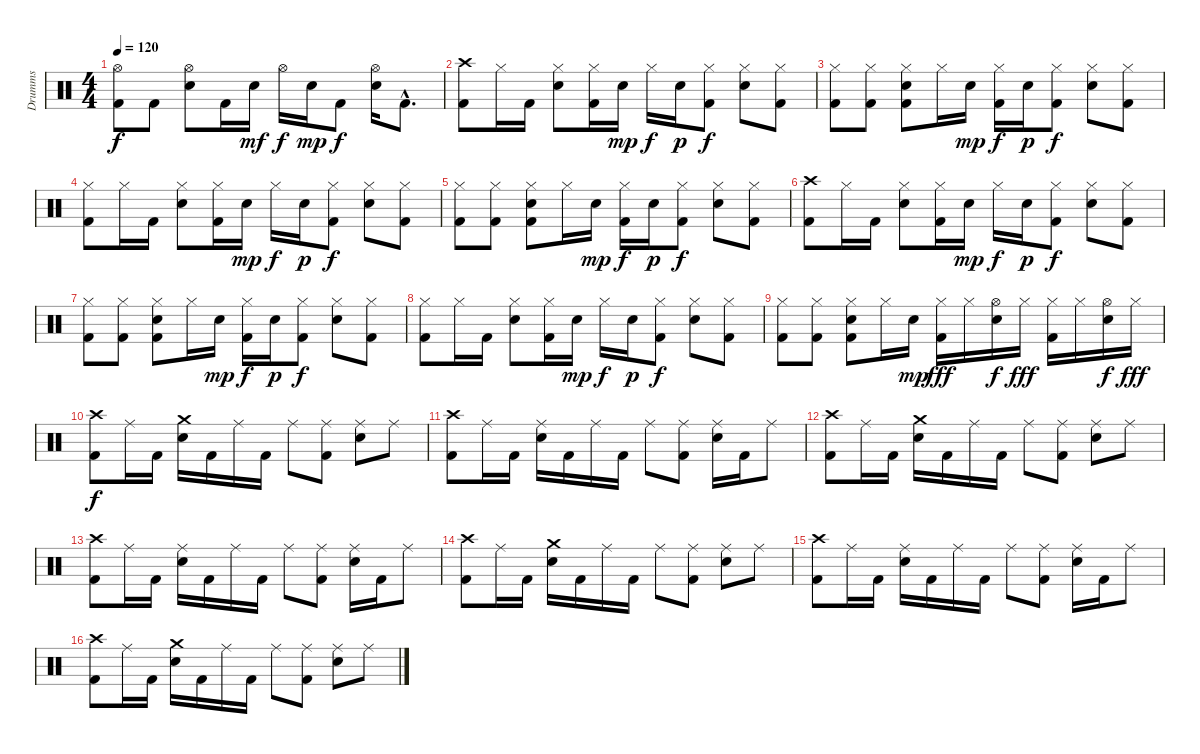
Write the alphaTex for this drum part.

\track ("Drumms" "Drumms") {instrument percussion}
\staff {score}
\articulation defaults
\ts (4 4)
\tempo 120
\clef neutral
\ks c
("Hi-Hat (open)" "Kick (hit) 2").8{dy f} "Kick (hit) 2".8 ("Hi-Hat (open)" "Electric Snare (hit)").8 "Kick (hit) 2".16 "Electric Snare (hit)".16{dy mf} "Hi-Hat (open)".16{dy f} "Electric Snare (hit)".16{dy mp} "Kick (hit) 2".8{dy f} ("Hi-Hat (open)" "Electric Snare (hit)").16 "Kick (hit) 2"{hac}.8{d} |
("Crash high (hit)" "Kick (hit) 2").8 "Hi-Hat (closed)".16 "Kick (hit) 2".16 ("Hi-Hat (closed)" "Electric Snare (hit)").8 ("Hi-Hat (closed)" "Kick (hit) 2").16 "Electric Snare (hit)".16{dy mp} "Hi-Hat (closed)".16{dy f} "Electric Snare (hit)".16{dy p} ("Hi-Hat (closed)" "Kick (hit) 2").8{dy f} ("Hi-Hat (closed)" "Electric Snare (hit)").8 ("Hi-Hat (closed)" "Kick (hit) 2").8 |
("Hi-Hat (closed)" "Kick (hit) 2").8 ("Hi-Hat (closed)" "Kick (hit) 2").8 ("Hi-Hat (closed)" "Electric Snare (hit)" "Kick (hit) 2").8 "Hi-Hat (closed)".16 "Electric Snare (hit)".16{dy mp} ("Hi-Hat (closed)" "Kick (hit) 2").16{dy f} "Electric Snare (hit)".16{dy p} ("Hi-Hat (closed)" "Kick (hit) 2").8{dy f} ("Hi-Hat (closed)" "Electric Snare (hit)").8 ("Hi-Hat (closed)" "Kick (hit) 2").8 |
("Hi-Hat (closed)" "Kick (hit) 2").8 "Hi-Hat (closed)".16 "Kick (hit) 2".16 ("Hi-Hat (closed)" "Electric Snare (hit)").8 ("Hi-Hat (closed)" "Kick (hit) 2").16 "Electric Snare (hit)".16{dy mp} "Hi-Hat (closed)".16{dy f} "Electric Snare (hit)".16{dy p} ("Hi-Hat (closed)" "Kick (hit) 2").8{dy f} ("Hi-Hat (closed)" "Electric Snare (hit)").8 ("Hi-Hat (closed)" "Kick (hit) 2").8 |
("Hi-Hat (closed)" "Kick (hit) 2").8 ("Hi-Hat (closed)" "Kick (hit) 2").8 ("Hi-Hat (closed)" "Electric Snare (hit)" "Kick (hit) 2").8 "Hi-Hat (closed)".16 "Electric Snare (hit)".16{dy mp} ("Hi-Hat (closed)" "Kick (hit) 2").16{dy f} "Electric Snare (hit)".16{dy p} ("Hi-Hat (closed)" "Kick (hit) 2").8{dy f} ("Hi-Hat (closed)" "Electric Snare (hit)").8 ("Hi-Hat (closed)" "Kick (hit) 2").8 |
("Crash high (hit)" "Kick (hit) 2").8 "Hi-Hat (closed)".16 "Kick (hit) 2".16 ("Hi-Hat (closed)" "Electric Snare (hit)").8 ("Hi-Hat (closed)" "Kick (hit) 2").16 "Electric Snare (hit)".16{dy mp} "Hi-Hat (closed)".16{dy f} "Electric Snare (hit)".16{dy p} ("Hi-Hat (closed)" "Kick (hit) 2").8{dy f} ("Hi-Hat (closed)" "Electric Snare (hit)").8 ("Hi-Hat (closed)" "Kick (hit) 2").8 |
("Hi-Hat (closed)" "Kick (hit) 2").8 ("Hi-Hat (closed)" "Kick (hit) 2").8 ("Hi-Hat (closed)" "Electric Snare (hit)" "Kick (hit) 2").8 "Hi-Hat (closed)".16 "Electric Snare (hit)".16{dy mp} ("Hi-Hat (closed)" "Kick (hit) 2").16{dy f} "Electric Snare (hit)".16{dy p} ("Hi-Hat (closed)" "Kick (hit) 2").8{dy f} ("Hi-Hat (closed)" "Electric Snare (hit)").8 ("Hi-Hat (closed)" "Kick (hit) 2").8 |
("Hi-Hat (closed)" "Kick (hit) 2").8 "Hi-Hat (closed)".16 "Kick (hit) 2".16 ("Hi-Hat (closed)" "Electric Snare (hit)").8 ("Hi-Hat (closed)" "Kick (hit) 2").16 "Electric Snare (hit)".16{dy mp} "Hi-Hat (closed)".16{dy f} "Electric Snare (hit)".16{dy p} ("Hi-Hat (closed)" "Kick (hit) 2").8{dy f} ("Hi-Hat (closed)" "Electric Snare (hit)").8 ("Hi-Hat (closed)" "Kick (hit) 2").8 |
("Hi-Hat (closed)" "Kick (hit) 2").8 ("Hi-Hat (closed)" "Kick (hit) 2").8 ("Hi-Hat (closed)" "Electric Snare (hit)" "Kick (hit) 2").8 "Hi-Hat (closed)".16 "Electric Snare (hit)".16{dy mp} ("Hi-Hat (closed)" "Kick (hit) 2").16{dy fff} "Hi-Hat (closed)".16 ("Hi-Hat (open)" "Electric Snare (hit)").16{dy f} "Hi-Hat (closed)".16{dy fff} ("Hi-Hat (closed)" "Kick (hit) 2").16 "Hi-Hat (closed)".16 ("Hi-Hat (open)" "Electric Snare (hit)").16{dy f} "Hi-Hat (closed)".16{dy fff} |
("Crash high (hit)" "Kick (hit) 2").8{dy f} "Ride (middle)".16 "Kick (hit) 2".16 ("Crash medium (hit)" "Electric Snare (hit)").16 "Kick (hit) 2".16 "Ride (middle)".16 "Kick (hit) 2".16 "Ride (middle)".8 ("Ride (middle)" "Kick (hit) 2").8 ("Ride (middle)" "Electric Snare (hit)").8 "Ride (middle)".8 |
("Crash high (hit)" "Kick (hit) 2").8 "Ride (middle)".16 "Kick (hit) 2".16 ("Ride (middle)" "Electric Snare (hit)").16 "Kick (hit) 2".16 "Ride (middle)".16 "Kick (hit) 2".16 "Ride (middle)".8 ("Ride (middle)" "Kick (hit) 2").8 ("Ride (middle)" "Electric Snare (hit)").16 "Kick (hit) 2".16 "Ride (middle)".8 |
("Crash high (hit)" "Kick (hit) 2").8 "Ride (middle)".16 "Kick (hit) 2".16 ("Crash medium (hit)" "Electric Snare (hit)").16 "Kick (hit) 2".16 "Ride (middle)".16 "Kick (hit) 2".16 "Ride (middle)".8 ("Ride (middle)" "Kick (hit) 2").8 ("Ride (middle)" "Electric Snare (hit)").8 "Ride (middle)".8 |
("Crash high (hit)" "Kick (hit) 2").8 "Ride (middle)".16 "Kick (hit) 2".16 ("Ride (middle)" "Electric Snare (hit)").16 "Kick (hit) 2".16 "Ride (middle)".16 "Kick (hit) 2".16 "Ride (middle)".8 ("Ride (middle)" "Kick (hit) 2").8 ("Ride (middle)" "Electric Snare (hit)").16 "Kick (hit) 2".16 "Ride (middle)".8 |
("Crash high (hit)" "Kick (hit) 2").8 "Ride (middle)".16 "Kick (hit) 2".16 ("Crash medium (hit)" "Electric Snare (hit)").16 "Kick (hit) 2".16 "Ride (middle)".16 "Kick (hit) 2".16 "Ride (middle)".8 ("Ride (middle)" "Kick (hit) 2").8 ("Ride (middle)" "Electric Snare (hit)").8 "Ride (middle)".8 |
("Crash high (hit)" "Kick (hit) 2").8 "Ride (middle)".16 "Kick (hit) 2".16 ("Ride (middle)" "Electric Snare (hit)").16 "Kick (hit) 2".16 "Ride (middle)".16 "Kick (hit) 2".16 "Ride (middle)".8 ("Ride (middle)" "Kick (hit) 2").8 ("Ride (middle)" "Electric Snare (hit)").16 "Kick (hit) 2".16 "Ride (middle)".8 |
("Crash high (hit)" "Kick (hit) 2").8 "Ride (middle)".16 "Kick (hit) 2".16 ("Crash medium (hit)" "Electric Snare (hit)").16 "Kick (hit) 2".16 "Ride (middle)".16 "Kick (hit) 2".16 "Ride (middle)".8 ("Ride (middle)" "Kick (hit) 2").8 ("Ride (middle)" "Electric Snare (hit)").8 "Ride (middle)".8
